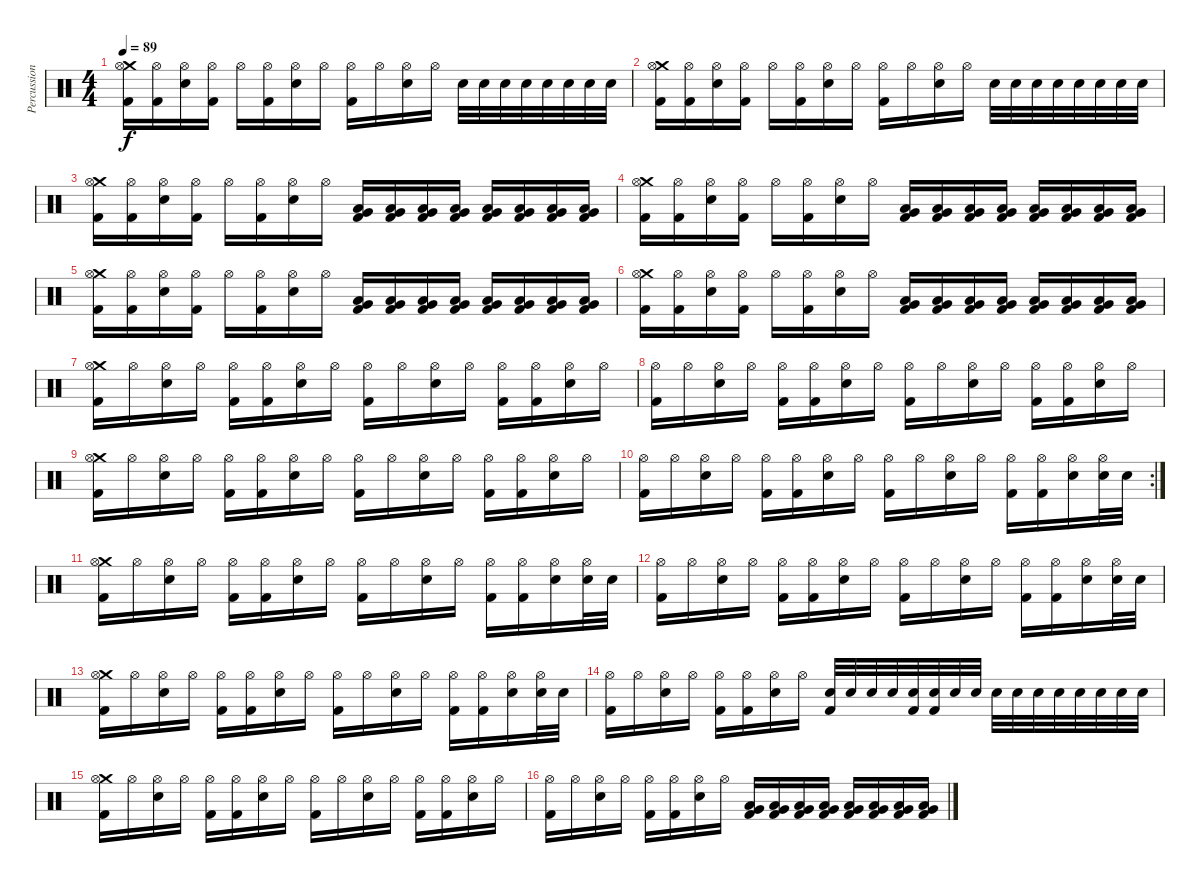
\track ("Percussion" "Percussion") {instrument percussion}
\staff {score}
\articulation defaults
\ts (4 4)
\tempo 89
\clef neutral
\ks c
("Crash medium (hit)" "Hi-Hat (open)" "Kick (hit) 2").16{dy f} ("Hi-Hat (open)" "Kick (hit) 2").16 ("Hi-Hat (open)" "Electric Snare (hit)").16 ("Hi-Hat (open)" "Kick (hit) 2").16 "Hi-Hat (open)".16 ("Hi-Hat (open)" "Kick (hit) 2").16 ("Hi-Hat (open)" "Electric Snare (hit)").16 "Hi-Hat (open)".16 ("Hi-Hat (open)" "Kick (hit) 2").16 "Hi-Hat (open)".16 ("Hi-Hat (open)" "Electric Snare (hit)").16 "Hi-Hat (open)".16 "Electric Snare (hit)".32 "Electric Snare (hit)".32 "Electric Snare (hit)".32 "Electric Snare (hit)".32 "Electric Snare (hit)".32 "Electric Snare (hit)".32 "Electric Snare (hit)".32 "Electric Snare (hit)".32 |
("Crash medium (hit)" "Hi-Hat (open)" "Kick (hit) 2").16 ("Hi-Hat (open)" "Kick (hit) 2").16 ("Hi-Hat (open)" "Electric Snare (hit)").16 ("Hi-Hat (open)" "Kick (hit) 2").16 "Hi-Hat (open)".16 ("Hi-Hat (open)" "Kick (hit) 2").16 ("Hi-Hat (open)" "Electric Snare (hit)").16 "Hi-Hat (open)".16 ("Hi-Hat (open)" "Kick (hit) 2").16 "Hi-Hat (open)".16 ("Hi-Hat (open)" "Electric Snare (hit)").16 "Hi-Hat (open)".16 "Electric Snare (hit)".32 "Electric Snare (hit)".32 "Electric Snare (hit)".32 "Electric Snare (hit)".32 "Electric Snare (hit)".32 "Electric Snare (hit)".32 "Electric Snare (hit)".32 "Electric Snare (hit)".32 |
("Crash medium (hit)" "Hi-Hat (open)" "Kick (hit) 2").16 ("Hi-Hat (open)" "Kick (hit) 2").16 ("Hi-Hat (open)" "Electric Snare (hit)").16 ("Hi-Hat (open)" "Kick (hit) 2").16 "Hi-Hat (open)".16 ("Hi-Hat (open)" "Kick (hit) 2").16 ("Hi-Hat (open)" "Electric Snare (hit)").16 "Hi-Hat (open)".16 ("Very Low Tom (hit)" "Low Floor Tom (hit)" "Kick (hit) 2").16 ("Very Low Tom (hit)" "Low Floor Tom (hit)" "Kick (hit) 2").16 ("Very Low Tom (hit)" "Low Floor Tom (hit)" "Kick (hit) 2").16 ("Very Low Tom (hit)" "Low Floor Tom (hit)" "Kick (hit) 2").16 ("Very Low Tom (hit)" "Low Floor Tom (hit)" "Kick (hit) 2").16 ("Very Low Tom (hit)" "Low Floor Tom (hit)" "Kick (hit) 2").16 ("Very Low Tom (hit)" "Low Floor Tom (hit)" "Kick (hit) 2").16 ("Very Low Tom (hit)" "Low Floor Tom (hit)" "Kick (hit) 2").16 |
("Crash medium (hit)" "Hi-Hat (open)" "Kick (hit) 2").16 ("Hi-Hat (open)" "Kick (hit) 2").16 ("Hi-Hat (open)" "Electric Snare (hit)").16 ("Hi-Hat (open)" "Kick (hit) 2").16 "Hi-Hat (open)".16 ("Hi-Hat (open)" "Kick (hit) 2").16 ("Hi-Hat (open)" "Electric Snare (hit)").16 "Hi-Hat (open)".16 ("Very Low Tom (hit)" "Low Floor Tom (hit)" "Kick (hit) 2").16 ("Very Low Tom (hit)" "Low Floor Tom (hit)" "Kick (hit) 2").16 ("Very Low Tom (hit)" "Low Floor Tom (hit)" "Kick (hit) 2").16 ("Very Low Tom (hit)" "Low Floor Tom (hit)" "Kick (hit) 2").16 ("Very Low Tom (hit)" "Low Floor Tom (hit)" "Kick (hit) 2").16 ("Very Low Tom (hit)" "Low Floor Tom (hit)" "Kick (hit) 2").16 ("Very Low Tom (hit)" "Low Floor Tom (hit)" "Kick (hit) 2").16 ("Very Low Tom (hit)" "Low Floor Tom (hit)" "Kick (hit) 2").16 |
("Crash medium (hit)" "Hi-Hat (open)" "Kick (hit) 2").16 ("Hi-Hat (open)" "Kick (hit) 2").16 ("Hi-Hat (open)" "Electric Snare (hit)").16 ("Hi-Hat (open)" "Kick (hit) 2").16 "Hi-Hat (open)".16 ("Hi-Hat (open)" "Kick (hit) 2").16 ("Hi-Hat (open)" "Electric Snare (hit)").16 "Hi-Hat (open)".16 ("Very Low Tom (hit)" "Low Floor Tom (hit)" "Kick (hit) 2").16 ("Very Low Tom (hit)" "Low Floor Tom (hit)" "Kick (hit) 2").16 ("Very Low Tom (hit)" "Low Floor Tom (hit)" "Kick (hit) 2").16 ("Very Low Tom (hit)" "Low Floor Tom (hit)" "Kick (hit) 2").16 ("Very Low Tom (hit)" "Low Floor Tom (hit)" "Kick (hit) 2").16 ("Very Low Tom (hit)" "Low Floor Tom (hit)" "Kick (hit) 2").16 ("Very Low Tom (hit)" "Low Floor Tom (hit)" "Kick (hit) 2").16 ("Very Low Tom (hit)" "Low Floor Tom (hit)" "Kick (hit) 2").16 |
("Crash medium (hit)" "Hi-Hat (open)" "Kick (hit) 2").16 ("Hi-Hat (open)" "Kick (hit) 2").16 ("Hi-Hat (open)" "Electric Snare (hit)").16 ("Hi-Hat (open)" "Kick (hit) 2").16 "Hi-Hat (open)".16 ("Hi-Hat (open)" "Kick (hit) 2").16 ("Hi-Hat (open)" "Electric Snare (hit)").16 "Hi-Hat (open)".16 ("Very Low Tom (hit)" "Low Floor Tom (hit)" "Kick (hit) 2").16 ("Very Low Tom (hit)" "Low Floor Tom (hit)" "Kick (hit) 2").16 ("Very Low Tom (hit)" "Low Floor Tom (hit)" "Kick (hit) 2").16 ("Very Low Tom (hit)" "Low Floor Tom (hit)" "Kick (hit) 2").16 ("Very Low Tom (hit)" "Low Floor Tom (hit)" "Kick (hit) 2").16 ("Very Low Tom (hit)" "Low Floor Tom (hit)" "Kick (hit) 2").16 ("Very Low Tom (hit)" "Low Floor Tom (hit)" "Kick (hit) 2").16 ("Very Low Tom (hit)" "Low Floor Tom (hit)" "Kick (hit) 2").16 |
("Crash medium (hit)" "Hi-Hat (open)" "Kick (hit) 2").16 "Hi-Hat (open)".16 ("Hi-Hat (open)" "Electric Snare (hit)").16 "Hi-Hat (open)".16 ("Hi-Hat (open)" "Kick (hit) 2").16 ("Hi-Hat (open)" "Kick (hit) 2").16 ("Hi-Hat (open)" "Electric Snare (hit)").16 "Hi-Hat (open)".16 ("Hi-Hat (open)" "Kick (hit) 2").16 "Hi-Hat (open)".16 ("Hi-Hat (open)" "Electric Snare (hit)").16 "Hi-Hat (open)".16 ("Hi-Hat (open)" "Kick (hit) 2").16 ("Hi-Hat (open)" "Kick (hit) 2").16 ("Hi-Hat (open)" "Electric Snare (hit)").16 "Hi-Hat (open)".16 |
("Hi-Hat (open)" "Kick (hit) 2").16 "Hi-Hat (open)".16 ("Hi-Hat (open)" "Electric Snare (hit)").16 "Hi-Hat (open)".16 ("Hi-Hat (open)" "Kick (hit) 2").16 ("Hi-Hat (open)" "Kick (hit) 2").16 ("Hi-Hat (open)" "Electric Snare (hit)").16 "Hi-Hat (open)".16 ("Hi-Hat (open)" "Kick (hit) 2").16 "Hi-Hat (open)".16 ("Hi-Hat (open)" "Electric Snare (hit)").16 "Hi-Hat (open)".16 ("Hi-Hat (open)" "Kick (hit) 2").16 ("Hi-Hat (open)" "Kick (hit) 2").16 ("Hi-Hat (open)" "Electric Snare (hit)").16 "Hi-Hat (open)".16 |
("Crash medium (hit)" "Hi-Hat (open)" "Kick (hit) 2").16 "Hi-Hat (open)".16 ("Hi-Hat (open)" "Electric Snare (hit)").16 "Hi-Hat (open)".16 ("Hi-Hat (open)" "Kick (hit) 2").16 ("Hi-Hat (open)" "Kick (hit) 2").16 ("Hi-Hat (open)" "Electric Snare (hit)").16 "Hi-Hat (open)".16 ("Hi-Hat (open)" "Kick (hit) 2").16 "Hi-Hat (open)".16 ("Hi-Hat (open)" "Electric Snare (hit)").16 "Hi-Hat (open)".16 ("Hi-Hat (open)" "Kick (hit) 2").16 ("Hi-Hat (open)" "Kick (hit) 2").16 ("Hi-Hat (open)" "Electric Snare (hit)").16 "Hi-Hat (open)".16 |
\rc 2
("Hi-Hat (open)" "Kick (hit) 2").16 "Hi-Hat (open)".16 ("Hi-Hat (open)" "Electric Snare (hit)").16 "Hi-Hat (open)".16 ("Hi-Hat (open)" "Kick (hit) 2").16 ("Hi-Hat (open)" "Kick (hit) 2").16 ("Hi-Hat (open)" "Electric Snare (hit)").16 "Hi-Hat (open)".16 ("Hi-Hat (open)" "Kick (hit) 2").16 "Hi-Hat (open)".16 ("Hi-Hat (open)" "Electric Snare (hit)").16 "Hi-Hat (open)".16 ("Hi-Hat (open)" "Kick (hit) 2").16 ("Hi-Hat (open)" "Kick (hit) 2").16 ("Hi-Hat (open)" "Electric Snare (hit)").16 ("Hi-Hat (open)" "Electric Snare (hit)").32 "Electric Snare (hit)".32 |
("Crash medium (hit)" "Hi-Hat (open)" "Kick (hit) 2").16 "Hi-Hat (open)".16 ("Hi-Hat (open)" "Electric Snare (hit)").16 "Hi-Hat (open)".16 ("Hi-Hat (open)" "Kick (hit) 2").16 ("Hi-Hat (open)" "Kick (hit) 2").16 ("Hi-Hat (open)" "Electric Snare (hit)").16 "Hi-Hat (open)".16 ("Hi-Hat (open)" "Kick (hit) 2").16 "Hi-Hat (open)".16 ("Hi-Hat (open)" "Electric Snare (hit)").16 "Hi-Hat (open)".16 ("Hi-Hat (open)" "Kick (hit) 2").16 ("Hi-Hat (open)" "Kick (hit) 2").16 ("Hi-Hat (open)" "Electric Snare (hit)").16 ("Hi-Hat (open)" "Electric Snare (hit)").32 "Electric Snare (hit)".32 |
("Hi-Hat (open)" "Kick (hit) 2").16 "Hi-Hat (open)".16 ("Hi-Hat (open)" "Electric Snare (hit)").16 "Hi-Hat (open)".16 ("Hi-Hat (open)" "Kick (hit) 2").16 ("Hi-Hat (open)" "Kick (hit) 2").16 ("Hi-Hat (open)" "Electric Snare (hit)").16 "Hi-Hat (open)".16 ("Hi-Hat (open)" "Kick (hit) 2").16 "Hi-Hat (open)".16 ("Hi-Hat (open)" "Electric Snare (hit)").16 "Hi-Hat (open)".16 ("Hi-Hat (open)" "Kick (hit) 2").16 ("Hi-Hat (open)" "Kick (hit) 2").16 ("Hi-Hat (open)" "Electric Snare (hit)").16 ("Hi-Hat (open)" "Electric Snare (hit)").32 "Electric Snare (hit)".32 |
("Crash medium (hit)" "Hi-Hat (open)" "Kick (hit) 2").16 "Hi-Hat (open)".16 ("Hi-Hat (open)" "Electric Snare (hit)").16 "Hi-Hat (open)".16 ("Hi-Hat (open)" "Kick (hit) 2").16 ("Hi-Hat (open)" "Kick (hit) 2").16 ("Hi-Hat (open)" "Electric Snare (hit)").16 "Hi-Hat (open)".16 ("Hi-Hat (open)" "Kick (hit) 2").16 "Hi-Hat (open)".16 ("Hi-Hat (open)" "Electric Snare (hit)").16 "Hi-Hat (open)".16 ("Hi-Hat (open)" "Kick (hit) 2").16 ("Hi-Hat (open)" "Kick (hit) 2").16 ("Hi-Hat (open)" "Electric Snare (hit)").16 ("Hi-Hat (open)" "Electric Snare (hit)").32 "Electric Snare (hit)".32 |
("Hi-Hat (open)" "Kick (hit) 2").16 "Hi-Hat (open)".16 ("Hi-Hat (open)" "Electric Snare (hit)").16 "Hi-Hat (open)".16 ("Hi-Hat (open)" "Kick (hit) 2").16 ("Hi-Hat (open)" "Kick (hit) 2").16 ("Hi-Hat (open)" "Electric Snare (hit)").16 "Hi-Hat (open)".16 ("Electric Snare (hit)" "Kick (hit) 2").32 "Electric Snare (hit)".32 "Electric Snare (hit)".32 "Electric Snare (hit)".32 ("Electric Snare (hit)" "Kick (hit) 2").32 ("Electric Snare (hit)" "Kick (hit) 2").32 "Electric Snare (hit)".32 "Electric Snare (hit)".32 "Electric Snare (hit)".32 "Electric Snare (hit)".32 "Electric Snare (hit)".32 "Electric Snare (hit)".32 "Electric Snare (hit)".32 "Electric Snare (hit)".32 "Electric Snare (hit)".32 "Electric Snare (hit)".32 |
("Crash medium (hit)" "Hi-Hat (open)" "Kick (hit) 2").16 "Hi-Hat (open)".16 ("Hi-Hat (open)" "Electric Snare (hit)").16 "Hi-Hat (open)".16 ("Hi-Hat (open)" "Kick (hit) 2").16 ("Hi-Hat (open)" "Kick (hit) 2").16 ("Hi-Hat (open)" "Electric Snare (hit)").16 "Hi-Hat (open)".16 ("Hi-Hat (open)" "Kick (hit) 2").16 "Hi-Hat (open)".16 ("Hi-Hat (open)" "Electric Snare (hit)").16 "Hi-Hat (open)".16 ("Hi-Hat (open)" "Kick (hit) 2").16 ("Hi-Hat (open)" "Kick (hit) 2").16 ("Hi-Hat (open)" "Electric Snare (hit)").16 "Hi-Hat (open)".16 |
("Hi-Hat (open)" "Kick (hit) 2").16 "Hi-Hat (open)".16 ("Hi-Hat (open)" "Electric Snare (hit)").16 "Hi-Hat (open)".16 ("Hi-Hat (open)" "Kick (hit) 2").16 ("Hi-Hat (open)" "Kick (hit) 2").16 ("Hi-Hat (open)" "Electric Snare (hit)").16 "Hi-Hat (open)".16 ("Very Low Tom (hit)" "Low Floor Tom (hit)" "Kick (hit) 2").16 ("Very Low Tom (hit)" "Low Floor Tom (hit)" "Kick (hit) 2").16 ("Very Low Tom (hit)" "Low Floor Tom (hit)" "Kick (hit) 2").16 ("Very Low Tom (hit)" "Low Floor Tom (hit)" "Kick (hit) 2").16 ("Very Low Tom (hit)" "Low Floor Tom (hit)" "Kick (hit) 2").16 ("Very Low Tom (hit)" "Low Floor Tom (hit)" "Kick (hit) 2").16 ("Very Low Tom (hit)" "Low Floor Tom (hit)" "Kick (hit) 2").16 ("Very Low Tom (hit)" "Low Floor Tom (hit)" "Kick (hit) 2").16
